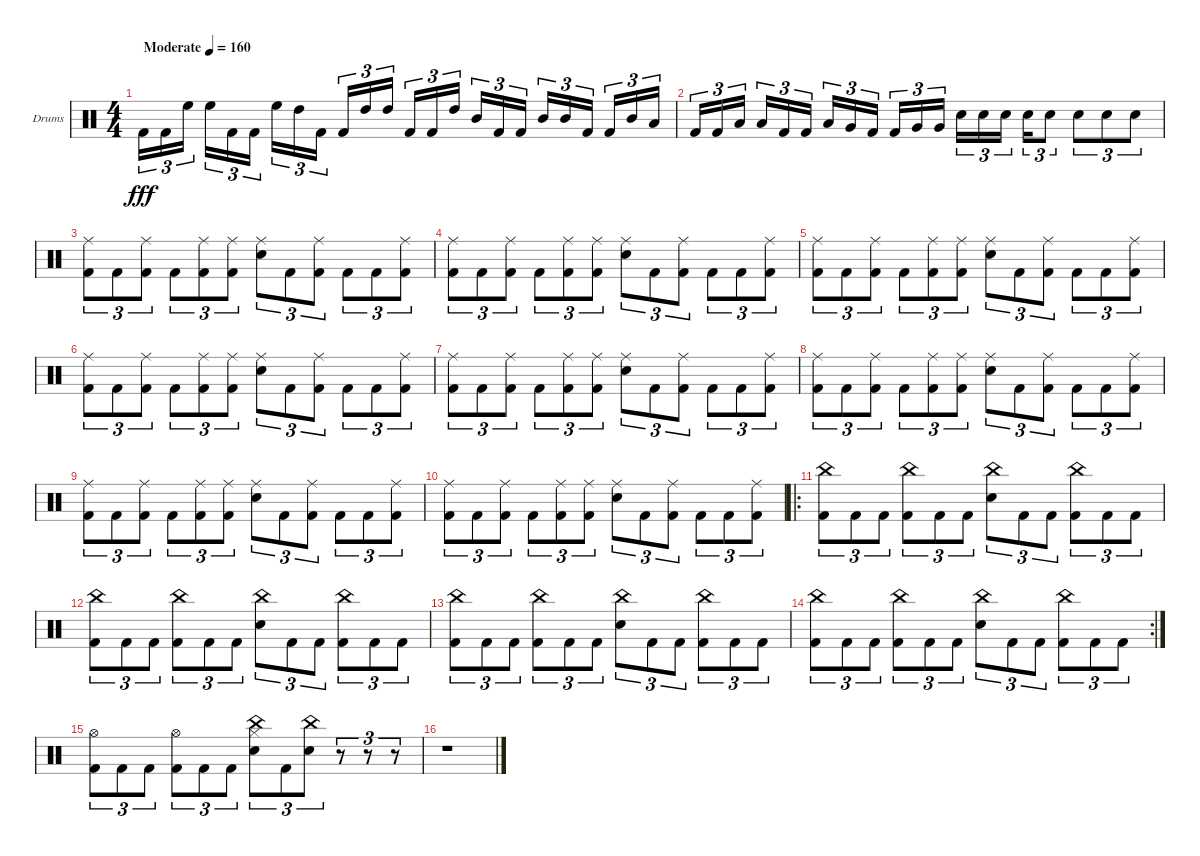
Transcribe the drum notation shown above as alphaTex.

\bracketExtendMode groupsimilarinstruments
\firstSystemTrackNameOrientation horizontal
\otherSystemsTrackNameOrientation horizontal
\track ("Gigante" "Drums") {instrument percussion}
\staff {score}
\articulation defaults
\ts (4 4)
\beaming (8 2 2 2 2)
\tempo (160 "Moderate")
\clef neutral
\ks c "Kick (hit) 2".16{tu (3 2) dy fff} "Kick (hit) 2".16{tu (3 2)} "High Floor Tom (hit)".16{tu (3 2)} "High Floor Tom (hit)".16{tu (3 2)} "Kick (hit) 2".16{tu (3 2)} "Kick (hit) 2".16{tu (3 2)} "High Floor Tom (hit)".16{tu (3 2)} "High Tom (hit)".16{tu (3 2)} "Kick (hit) 2".16{tu (3 2)} "Kick (hit) 2".16{tu (3 2)} "High Tom (hit)".16{tu (3 2)} "High Tom (hit)".16{tu (3 2)} "Kick (hit) 2".16{tu (3 2)} "Kick (hit) 2".16{tu (3 2)} "High Tom (hit)".16{tu (3 2)} "Mid Tom (hit)".16{tu (3 2)} "Kick (hit) 2".16{tu (3 2)} "Kick (hit) 2".16{tu (3 2)} "Mid Tom (hit)".16{tu (3 2)} "Mid Tom (hit)".16{tu (3 2)} "Kick (hit) 2".16{tu (3 2)} "Kick (hit) 2".16{tu (3 2)} "Mid Tom (hit)".16{tu (3 2)} "Low Tom (hit)".16{tu (3 2)}
|
"Kick (hit) 2".16{tu (3 2)} "Kick (hit) 2".16{tu (3 2)} "Low Tom (hit)".16{tu (3 2)} "Low Tom (hit)".16{tu (3 2)} "Kick (hit) 2".16{tu (3 2)} "Kick (hit) 2".16{tu (3 2)} "Low Tom (hit)".16{tu (3 2)} "Very Low Tom (hit)".16{tu (3 2)} "Kick (hit) 2".16{tu (3 2)} "Kick (hit) 2".16{tu (3 2)} "Very Low Tom (hit)".16{tu (3 2)} "Very Low Tom (hit)".16{tu (3 2)} "Snare (hit) 2".16{tu (3 2)} "Snare (hit) 2".16{tu (3 2)} "Snare (hit) 2".16{tu (3 2)} "Snare (hit) 2".16{tu (3 2)} "Snare (hit) 2".8{tu (3 2)} "Snare (hit) 2".8{tu (3 2)} "Snare (hit) 2".8{tu (3 2)} "Snare (hit) 2".8{tu (3 2)} |
("Ride (middle)" "Kick (hit) 2").8{tu (3 2)} "Kick (hit) 2".8{tu (3 2)} ("Ride (middle)" "Kick (hit) 2").8{tu (3 2)} "Kick (hit) 2".8{tu (3 2)} ("Ride (middle)" "Kick (hit) 2").8{tu (3 2)} ("Ride (middle)" "Kick (hit) 2").8{tu (3 2)} ("Ride (middle)" "Snare (hit) 2").8{tu (3 2)} "Kick (hit) 2".8{tu (3 2)} ("Ride (middle)" "Kick (hit) 2").8{tu (3 2)} "Kick (hit) 2".8{tu (3 2)} "Kick (hit) 2".8{tu (3 2)} ("Ride (middle)" "Kick (hit) 2").8{tu (3 2)} |
("Ride (middle)" "Kick (hit) 2").8{tu (3 2)} "Kick (hit) 2".8{tu (3 2)} ("Ride (middle)" "Kick (hit) 2").8{tu (3 2)} "Kick (hit) 2".8{tu (3 2)} ("Ride (middle)" "Kick (hit) 2").8{tu (3 2)} ("Ride (middle)" "Kick (hit) 2").8{tu (3 2)} ("Ride (middle)" "Snare (hit) 2").8{tu (3 2)} "Kick (hit) 2".8{tu (3 2)} ("Ride (middle)" "Kick (hit) 2").8{tu (3 2)} "Kick (hit) 2".8{tu (3 2)} "Kick (hit) 2".8{tu (3 2)} ("Ride (middle)" "Kick (hit) 2").8{tu (3 2)} |
("Ride (middle)" "Kick (hit) 2").8{tu (3 2)} "Kick (hit) 2".8{tu (3 2)} ("Ride (middle)" "Kick (hit) 2").8{tu (3 2)} "Kick (hit) 2".8{tu (3 2)} ("Ride (middle)" "Kick (hit) 2").8{tu (3 2)} ("Ride (middle)" "Kick (hit) 2").8{tu (3 2)} ("Ride (middle)" "Snare (hit) 2").8{tu (3 2)} "Kick (hit) 2".8{tu (3 2)} ("Ride (middle)" "Kick (hit) 2").8{tu (3 2)} "Kick (hit) 2".8{tu (3 2)} "Kick (hit) 2".8{tu (3 2)} ("Ride (middle)" "Kick (hit) 2").8{tu (3 2)} |
("Ride (middle)" "Kick (hit) 2").8{tu (3 2)} "Kick (hit) 2".8{tu (3 2)} ("Ride (middle)" "Kick (hit) 2").8{tu (3 2)} "Kick (hit) 2".8{tu (3 2)} ("Ride (middle)" "Kick (hit) 2").8{tu (3 2)} ("Ride (middle)" "Kick (hit) 2").8{tu (3 2)} ("Ride (middle)" "Snare (hit) 2").8{tu (3 2)} "Kick (hit) 2".8{tu (3 2)} ("Ride (middle)" "Kick (hit) 2").8{tu (3 2)} "Kick (hit) 2".8{tu (3 2)} "Kick (hit) 2".8{tu (3 2)} ("Ride (middle)" "Kick (hit) 2").8{tu (3 2)} |
("Ride (middle)" "Kick (hit) 2").8{tu (3 2)} "Kick (hit) 2".8{tu (3 2)} ("Ride (middle)" "Kick (hit) 2").8{tu (3 2)} "Kick (hit) 2".8{tu (3 2)} ("Ride (middle)" "Kick (hit) 2").8{tu (3 2)} ("Ride (middle)" "Kick (hit) 2").8{tu (3 2)} ("Ride (middle)" "Snare (hit) 2").8{tu (3 2)} "Kick (hit) 2".8{tu (3 2)} ("Ride (middle)" "Kick (hit) 2").8{tu (3 2)} "Kick (hit) 2".8{tu (3 2)} "Kick (hit) 2".8{tu (3 2)} ("Ride (middle)" "Kick (hit) 2").8{tu (3 2)} |
("Ride (middle)" "Kick (hit) 2").8{tu (3 2)} "Kick (hit) 2".8{tu (3 2)} ("Ride (middle)" "Kick (hit) 2").8{tu (3 2)} "Kick (hit) 2".8{tu (3 2)} ("Ride (middle)" "Kick (hit) 2").8{tu (3 2)} ("Ride (middle)" "Kick (hit) 2").8{tu (3 2)} ("Ride (middle)" "Snare (hit) 2").8{tu (3 2)} "Kick (hit) 2".8{tu (3 2)} ("Ride (middle)" "Kick (hit) 2").8{tu (3 2)} "Kick (hit) 2".8{tu (3 2)} "Kick (hit) 2".8{tu (3 2)} ("Ride (middle)" "Kick (hit) 2").8{tu (3 2)} |
("Ride (middle)" "Kick (hit) 2").8{tu (3 2)} "Kick (hit) 2".8{tu (3 2)} ("Ride (middle)" "Kick (hit) 2").8{tu (3 2)} "Kick (hit) 2".8{tu (3 2)} ("Ride (middle)" "Kick (hit) 2").8{tu (3 2)} ("Ride (middle)" "Kick (hit) 2").8{tu (3 2)} ("Ride (middle)" "Snare (hit) 2").8{tu (3 2)} "Kick (hit) 2".8{tu (3 2)} ("Ride (middle)" "Kick (hit) 2").8{tu (3 2)} "Kick (hit) 2".8{tu (3 2)} "Kick (hit) 2".8{tu (3 2)} ("Ride (middle)" "Kick (hit) 2").8{tu (3 2)} |
("Ride (middle)" "Kick (hit) 2").8{tu (3 2)} "Kick (hit) 2".8{tu (3 2)} ("Ride (middle)" "Kick (hit) 2").8{tu (3 2)} "Kick (hit) 2".8{tu (3 2)} ("Ride (middle)" "Kick (hit) 2").8{tu (3 2)} ("Ride (middle)" "Kick (hit) 2").8{tu (3 2)} ("Ride (middle)" "Snare (hit) 2").8{tu (3 2)} "Kick (hit) 2".8{tu (3 2)} ("Ride (middle)" "Kick (hit) 2").8{tu (3 2)} "Kick (hit) 2".8{tu (3 2)} "Kick (hit) 2".8{tu (3 2)} ("Ride (middle)" "Kick (hit) 2").8{tu (3 2)} |
\ro
("China (hit)" "Kick (hit) 2").8{tu (3 2)} "Kick (hit) 2".8{tu (3 2)} "Kick (hit) 2".8{tu (3 2)} ("China (hit)" "Kick (hit) 2").8{tu (3 2)} "Kick (hit) 2".8{tu (3 2)} "Kick (hit) 2".8{tu (3 2)} ("China (hit)" "Snare (hit) 2").8{tu (3 2)} "Kick (hit) 2".8{tu (3 2)} "Kick (hit) 2".8{tu (3 2)} ("China (hit)" "Kick (hit) 2").8{tu (3 2)} "Kick (hit) 2".8{tu (3 2)} "Kick (hit) 2".8{tu (3 2)} |
("China (hit)" "Kick (hit) 2").8{tu (3 2)} "Kick (hit) 2".8{tu (3 2)} "Kick (hit) 2".8{tu (3 2)} ("China (hit)" "Kick (hit) 2").8{tu (3 2)} "Kick (hit) 2".8{tu (3 2)} "Kick (hit) 2".8{tu (3 2)} ("China (hit)" "Snare (hit) 2").8{tu (3 2)} "Kick (hit) 2".8{tu (3 2)} "Kick (hit) 2".8{tu (3 2)} ("China (hit)" "Kick (hit) 2").8{tu (3 2)} "Kick (hit) 2".8{tu (3 2)} "Kick (hit) 2".8{tu (3 2)} |
("China (hit)" "Kick (hit) 2").8{tu (3 2)} "Kick (hit) 2".8{tu (3 2)} "Kick (hit) 2".8{tu (3 2)} ("China (hit)" "Kick (hit) 2").8{tu (3 2)} "Kick (hit) 2".8{tu (3 2)} "Kick (hit) 2".8{tu (3 2)} ("China (hit)" "Snare (hit) 2").8{tu (3 2)} "Kick (hit) 2".8{tu (3 2)} "Kick (hit) 2".8{tu (3 2)} ("China (hit)" "Kick (hit) 2").8{tu (3 2)} "Kick (hit) 2".8{tu (3 2)} "Kick (hit) 2".8{tu (3 2)} |
\rc 2
("China (hit)" "Kick (hit) 2").8{tu (3 2)} "Kick (hit) 2".8{tu (3 2)} "Kick (hit) 2".8{tu (3 2)} ("China (hit)" "Kick (hit) 2").8{tu (3 2)} "Kick (hit) 2".8{tu (3 2)} "Kick (hit) 2".8{tu (3 2)} ("China (hit)" "Snare (hit) 2").8{tu (3 2)} "Kick (hit) 2".8{tu (3 2)} "Kick (hit) 2".8{tu (3 2)} ("China (hit)" "Kick (hit) 2").8{tu (3 2)} "Kick (hit) 2".8{tu (3 2)} "Kick (hit) 2".8{tu (3 2)} |
("Hi-Hat (open)" "Kick (hit) 2").8{tu (3 2)} "Kick (hit) 2".8{tu (3 2)} "Kick (hit) 2".8{tu (3 2)} ("Hi-Hat (open)" "Kick (hit) 2").8{tu (3 2)} "Kick (hit) 2".8{tu (3 2)} "Kick (hit) 2".8{tu (3 2)} ("China (hit)" "Snare (hit) 2" "Hi-Hat (closed)").8{tu (3 2)} "Kick (hit) 2".8{tu (3 2)} ("China (hit)" "Snare (hit) 2").8{tu (3 2)} r.8{tu (3 2)} r.8{tu (3 2)} r.8{tu (3 2)} |
r.1
